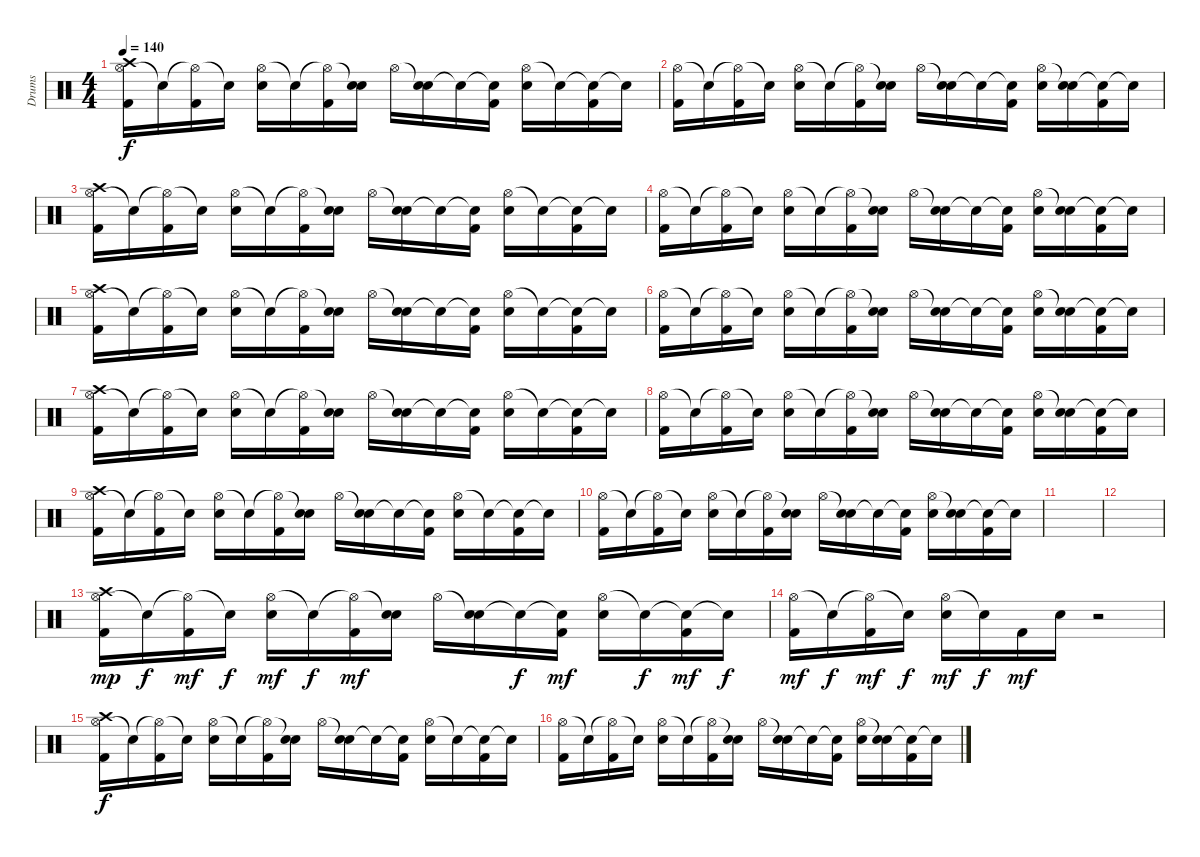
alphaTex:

\track ("Drums" "Drums") {instrument percussion}
\staff {score}
\articulation defaults
\ts (4 4)
\tempo 140
\clef neutral
\ks c
("Hi-Hat (open)" "Kick (hit) 2" "Crash high (hit)").16{dy f} "Snare (hit)"{t}.16 ("Hi-Hat (open)"{t} "Kick (hit) 2").16 "Snare (hit)"{t}.16 ("Hi-Hat (open)" "Electric Snare (hit)").16 "Snare (hit)"{t}.16 ("Hi-Hat (open)"{t} "Kick (hit) 2").16 ("Snare (hit)"{t} "Electric Snare (hit)").16 "Hi-Hat (open)".16 ("Snare (hit)"{t} "Electric Snare (hit)").16 "Snare (hit)"{t}.16 ("Snare (hit)"{t} "Kick (hit) 2").16 ("Hi-Hat (open)" "Electric Snare (hit)").16 "Snare (hit)"{t}.16 ("Snare (hit)"{t} "Kick (hit) 2").16 "Snare (hit)"{t}.16 |
("Hi-Hat (open)" "Kick (hit) 2").16 "Snare (hit)"{t}.16 ("Hi-Hat (open)"{t} "Kick (hit) 2").16 "Snare (hit)"{t}.16 ("Hi-Hat (open)" "Electric Snare (hit)").16 "Snare (hit)"{t}.16 ("Hi-Hat (open)"{t} "Kick (hit) 2").16 ("Snare (hit)"{t} "Electric Snare (hit)").16 "Hi-Hat (open)".16 ("Snare (hit)"{t} "Electric Snare (hit)").16 "Snare (hit)"{t}.16 ("Snare (hit)"{t} "Kick (hit) 2").16 ("Hi-Hat (open)" "Electric Snare (hit)").16 ("Snare (hit)"{t} "Electric Snare (hit)").16 ("Snare (hit)"{t} "Kick (hit) 2").16 "Snare (hit)"{t}.16 |
("Hi-Hat (open)" "Kick (hit) 2" "Crash high (hit)").16 "Snare (hit)"{t}.16 ("Hi-Hat (open)"{t} "Kick (hit) 2").16 "Snare (hit)"{t}.16 ("Hi-Hat (open)" "Electric Snare (hit)").16 "Snare (hit)"{t}.16 ("Hi-Hat (open)"{t} "Kick (hit) 2").16 ("Snare (hit)"{t} "Electric Snare (hit)").16 "Hi-Hat (open)".16 ("Snare (hit)"{t} "Electric Snare (hit)").16 "Snare (hit)"{t}.16 ("Snare (hit)"{t} "Kick (hit) 2").16 ("Hi-Hat (open)" "Electric Snare (hit)").16 "Snare (hit)"{t}.16 ("Snare (hit)"{t} "Kick (hit) 2").16 "Snare (hit)"{t}.16 |
("Hi-Hat (open)" "Kick (hit) 2").16 "Snare (hit)"{t}.16 ("Hi-Hat (open)"{t} "Kick (hit) 2").16 "Snare (hit)"{t}.16 ("Hi-Hat (open)" "Electric Snare (hit)").16 "Snare (hit)"{t}.16 ("Hi-Hat (open)"{t} "Kick (hit) 2").16 ("Snare (hit)"{t} "Electric Snare (hit)").16 "Hi-Hat (open)".16 ("Snare (hit)"{t} "Electric Snare (hit)").16 "Snare (hit)"{t}.16 ("Snare (hit)"{t} "Kick (hit) 2").16 ("Hi-Hat (open)" "Electric Snare (hit)").16 ("Snare (hit)"{t} "Electric Snare (hit)").16 ("Snare (hit)"{t} "Kick (hit) 2").16 "Snare (hit)"{t}.16 |
("Hi-Hat (open)" "Kick (hit) 2" "Crash high (hit)").16 "Snare (hit)"{t}.16 ("Hi-Hat (open)"{t} "Kick (hit) 2").16 "Snare (hit)"{t}.16 ("Hi-Hat (open)" "Electric Snare (hit)").16 "Snare (hit)"{t}.16 ("Hi-Hat (open)"{t} "Kick (hit) 2").16 ("Snare (hit)"{t} "Electric Snare (hit)").16 "Hi-Hat (open)".16 ("Snare (hit)"{t} "Electric Snare (hit)").16 "Snare (hit)"{t}.16 ("Snare (hit)"{t} "Kick (hit) 2").16 ("Hi-Hat (open)" "Electric Snare (hit)").16 "Snare (hit)"{t}.16 ("Snare (hit)"{t} "Kick (hit) 2").16 "Snare (hit)"{t}.16 |
("Hi-Hat (open)" "Kick (hit) 2").16 "Snare (hit)"{t}.16 ("Hi-Hat (open)"{t} "Kick (hit) 2").16 "Snare (hit)"{t}.16 ("Hi-Hat (open)" "Electric Snare (hit)").16 "Snare (hit)"{t}.16 ("Hi-Hat (open)"{t} "Kick (hit) 2").16 ("Snare (hit)"{t} "Electric Snare (hit)").16 "Hi-Hat (open)".16 ("Snare (hit)"{t} "Electric Snare (hit)").16 "Snare (hit)"{t}.16 ("Snare (hit)"{t} "Kick (hit) 2").16 ("Hi-Hat (open)" "Electric Snare (hit)").16 ("Snare (hit)"{t} "Electric Snare (hit)").16 ("Snare (hit)"{t} "Kick (hit) 2").16 "Snare (hit)"{t}.16 |
("Hi-Hat (open)" "Kick (hit) 2" "Crash high (hit)").16 "Snare (hit)"{t}.16 ("Hi-Hat (open)"{t} "Kick (hit) 2").16 "Snare (hit)"{t}.16 ("Hi-Hat (open)" "Electric Snare (hit)").16 "Snare (hit)"{t}.16 ("Hi-Hat (open)"{t} "Kick (hit) 2").16 ("Snare (hit)"{t} "Electric Snare (hit)").16 "Hi-Hat (open)".16 ("Snare (hit)"{t} "Electric Snare (hit)").16 "Snare (hit)"{t}.16 ("Snare (hit)"{t} "Kick (hit) 2").16 ("Hi-Hat (open)" "Electric Snare (hit)").16 "Snare (hit)"{t}.16 ("Snare (hit)"{t} "Kick (hit) 2").16 "Snare (hit)"{t}.16 |
("Hi-Hat (open)" "Kick (hit) 2").16 "Snare (hit)"{t}.16 ("Hi-Hat (open)"{t} "Kick (hit) 2").16 "Snare (hit)"{t}.16 ("Hi-Hat (open)" "Electric Snare (hit)").16 "Snare (hit)"{t}.16 ("Hi-Hat (open)"{t} "Kick (hit) 2").16 ("Snare (hit)"{t} "Electric Snare (hit)").16 "Hi-Hat (open)".16 ("Snare (hit)"{t} "Electric Snare (hit)").16 "Snare (hit)"{t}.16 ("Snare (hit)"{t} "Kick (hit) 2").16 ("Hi-Hat (open)" "Electric Snare (hit)").16 ("Snare (hit)"{t} "Electric Snare (hit)").16 ("Snare (hit)"{t} "Kick (hit) 2").16 "Snare (hit)"{t}.16 |
("Hi-Hat (open)" "Kick (hit) 2" "Crash high (hit)").16 "Snare (hit)"{t}.16 ("Hi-Hat (open)"{t} "Kick (hit) 2").16 "Snare (hit)"{t}.16 ("Hi-Hat (open)" "Electric Snare (hit)").16 "Snare (hit)"{t}.16 ("Hi-Hat (open)"{t} "Kick (hit) 2").16 ("Snare (hit)"{t} "Electric Snare (hit)").16 "Hi-Hat (open)".16 ("Snare (hit)"{t} "Electric Snare (hit)").16 "Snare (hit)"{t}.16 ("Snare (hit)"{t} "Kick (hit) 2").16 ("Hi-Hat (open)" "Electric Snare (hit)").16 "Snare (hit)"{t}.16 ("Snare (hit)"{t} "Kick (hit) 2").16 "Snare (hit)"{t}.16 |
("Hi-Hat (open)" "Kick (hit) 2").16 "Snare (hit)"{t}.16 ("Hi-Hat (open)"{t} "Kick (hit) 2").16 "Snare (hit)"{t}.16 ("Hi-Hat (open)" "Electric Snare (hit)").16 "Snare (hit)"{t}.16 ("Hi-Hat (open)"{t} "Kick (hit) 2").16 ("Snare (hit)"{t} "Electric Snare (hit)").16 "Hi-Hat (open)".16 ("Snare (hit)"{t} "Electric Snare (hit)").16 "Snare (hit)"{t}.16 ("Snare (hit)"{t} "Kick (hit) 2").16 ("Hi-Hat (open)" "Electric Snare (hit)").16 ("Snare (hit)"{t} "Electric Snare (hit)").16 ("Snare (hit)"{t} "Kick (hit) 2").16 "Snare (hit)"{t}.16 |
|
|
("Hi-Hat (open)" "Kick (hit) 2" "Crash high (hit)").16{dy mp} "Snare (hit)"{t}.16{dy f} ("Hi-Hat (open)"{t} "Kick (hit) 2").16{dy mf} "Snare (hit)"{t}.16{dy f} ("Hi-Hat (open)" "Electric Snare (hit)").16{dy mf} "Snare (hit)"{t}.16{dy f} ("Hi-Hat (open)"{t} "Kick (hit) 2").16{dy mf} ("Snare (hit)"{t} "Electric Snare (hit)").16 "Hi-Hat (open)".16 ("Snare (hit)"{t} "Electric Snare (hit)").16 "Snare (hit)"{t}.16{dy f} ("Snare (hit)"{t} "Kick (hit) 2").16{dy mf} ("Hi-Hat (open)" "Electric Snare (hit)").16 "Snare (hit)"{t}.16{dy f} ("Snare (hit)"{t} "Kick (hit) 2").16{dy mf} "Snare (hit)"{t}.16{dy f} |
("Hi-Hat (open)" "Kick (hit) 2").16{dy mf} "Snare (hit)"{t}.16{dy f} ("Hi-Hat (open)"{t} "Kick (hit) 2").16{dy mf} "Snare (hit)"{t}.16{dy f} ("Hi-Hat (open)" "Electric Snare (hit)").16{dy mf} "Snare (hit)"{t}.16{dy f} "Kick (hit) 2".16{dy mf} "Electric Snare (hit)".16 r.2 |
("Hi-Hat (open)" "Kick (hit) 2" "Crash high (hit)").16{dy f} "Snare (hit)"{t}.16 ("Hi-Hat (open)"{t} "Kick (hit) 2").16 "Snare (hit)"{t}.16 ("Hi-Hat (open)" "Electric Snare (hit)").16 "Snare (hit)"{t}.16 ("Hi-Hat (open)"{t} "Kick (hit) 2").16 ("Snare (hit)"{t} "Electric Snare (hit)").16 "Hi-Hat (open)".16 ("Snare (hit)"{t} "Electric Snare (hit)").16 "Snare (hit)"{t}.16 ("Snare (hit)"{t} "Kick (hit) 2").16 ("Hi-Hat (open)" "Electric Snare (hit)").16 "Snare (hit)"{t}.16 ("Snare (hit)"{t} "Kick (hit) 2").16 "Snare (hit)"{t}.16 |
("Hi-Hat (open)" "Kick (hit) 2").16 "Snare (hit)"{t}.16 ("Hi-Hat (open)"{t} "Kick (hit) 2").16 "Snare (hit)"{t}.16 ("Hi-Hat (open)" "Electric Snare (hit)").16 "Snare (hit)"{t}.16 ("Hi-Hat (open)"{t} "Kick (hit) 2").16 ("Snare (hit)"{t} "Electric Snare (hit)").16 "Hi-Hat (open)".16 ("Snare (hit)"{t} "Electric Snare (hit)").16 "Snare (hit)"{t}.16 ("Snare (hit)"{t} "Kick (hit) 2").16 ("Hi-Hat (open)" "Electric Snare (hit)").16 ("Snare (hit)"{t} "Electric Snare (hit)").16 ("Snare (hit)"{t} "Kick (hit) 2").16 "Snare (hit)"{t}.16
